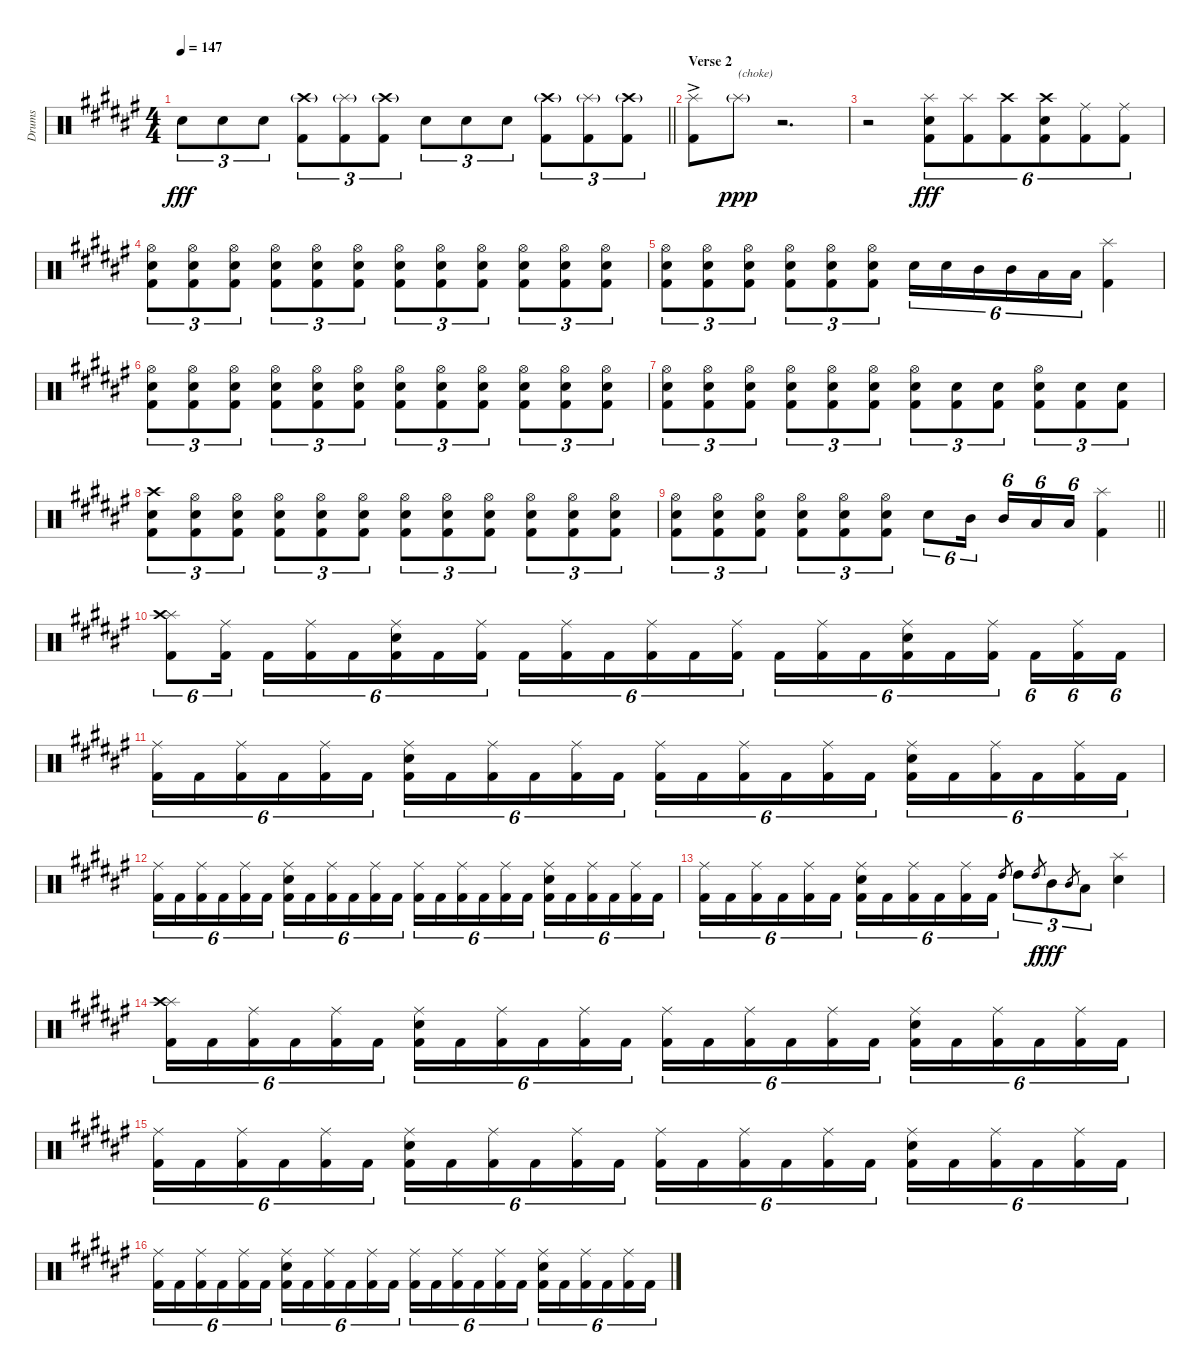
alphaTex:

\track ("Drums" "Drums") {instrument percussion}
\staff {score}
\articulation defaults
\ts (4 4)
\tempo 147
\clef neutral
\barLineRight lightlight
\ks d#minor "Snare (hit) 2".8{tu (3 2) dy fff} "Snare (hit) 2".8{tu (3 2)} "Snare (hit) 2".8{tu (3 2)}
("Crash high (hit)"{g} "Kick (hit) 2").8{tu (3 2)} ("Splash (hit)"{g} "Kick (hit) 2").8{tu (3 2)} ("Crash high (hit)"{g} "Kick (hit) 2").8{tu (3 2)} "Snare (hit) 2".8{tu (3 2)} "Snare (hit) 2".8{tu (3 2)} "Snare (hit) 2".8{tu (3 2)} ("Crash high (hit)"{g} "Kick (hit) 2").8{tu (3 2)} ("Splash (hit)"{g} "Kick (hit) 2").8{tu (3 2)} ("Crash high (hit)"{g} "Kick (hit) 2").8{tu (3 2)} |
\section ("" "Verse 2")
("Splash (hit)"{ac} "Kick (hit) 2").8 "Splash (hit)"{g}.8{txt "(choke)" dy ppp} r.2{d} |
r.2 ("Splash (hit)" "Snare (hit) 2" "Kick (hit) 2").8{tu (6 4) dy fff} ("Splash (hit)" "Kick (hit) 2").8{tu (6 4)} ("Crash high (hit)" "Kick (hit) 2").8{tu (6 4)} ("Crash high (hit)" "Snare (hit) 2" "Kick (hit) 2").8{tu (6 4)} ("Ride (middle)" "Kick (hit) 2").8{tu (6 4)} ("Ride (middle)" "Kick (hit) 2").8{tu (6 4)} |
("Hi-Hat (open)" "Snare (hit) 2" "Kick (hit) 2").8{tu (3 2)} ("Hi-Hat (open)" "Snare (hit) 2" "Kick (hit) 2").8{tu (3 2)} ("Hi-Hat (open)" "Snare (hit) 2" "Kick (hit) 2").8{tu (3 2)} ("Hi-Hat (open)" "Snare (hit) 2" "Kick (hit) 2").8{tu (3 2)} ("Hi-Hat (open)" "Snare (hit) 2" "Kick (hit) 2").8{tu (3 2)} ("Hi-Hat (open)" "Snare (hit) 2" "Kick (hit) 2").8{tu (3 2)} ("Hi-Hat (open)" "Snare (hit) 2" "Kick (hit) 2").8{tu (3 2)} ("Hi-Hat (open)" "Snare (hit) 2" "Kick (hit) 2").8{tu (3 2)} ("Hi-Hat (open)" "Snare (hit) 2" "Kick (hit) 2").8{tu (3 2)} ("Hi-Hat (open)" "Snare (hit) 2" "Kick (hit) 2").8{tu (3 2)} ("Hi-Hat (open)" "Snare (hit) 2" "Kick (hit) 2").8{tu (3 2)} ("Hi-Hat (open)" "Snare (hit) 2" "Kick (hit) 2").8{tu (3 2)} |
("Hi-Hat (open)" "Snare (hit) 2" "Kick (hit) 2").8{tu (3 2)} ("Hi-Hat (open)" "Snare (hit) 2" "Kick (hit) 2").8{tu (3 2)} ("Hi-Hat (open)" "Snare (hit) 2" "Kick (hit) 2").8{tu (3 2)} ("Hi-Hat (open)" "Snare (hit) 2" "Kick (hit) 2").8{tu (3 2)} ("Hi-Hat (open)" "Snare (hit) 2" "Kick (hit) 2").8{tu (3 2)} ("Hi-Hat (open)" "Snare (hit) 2" "Kick (hit) 2").8{tu (3 2)} "Snare (hit) 2".16{tu (6 4)} "Snare (hit) 2".16{tu (6 4)} "Mid Tom (hit)".16{tu (6 4)} "Mid Tom (hit)".16{tu (6 4)} "Low Tom (hit)".16{tu (6 4)} "Low Tom (hit)".16{tu (6 4)} ("Splash (hit)" "Kick (hit) 2").4 |
("Hi-Hat (open)" "Snare (hit) 2" "Kick (hit) 2").8{tu (3 2)} ("Hi-Hat (open)" "Snare (hit) 2" "Kick (hit) 2").8{tu (3 2)} ("Hi-Hat (open)" "Snare (hit) 2" "Kick (hit) 2").8{tu (3 2)} ("Hi-Hat (open)" "Snare (hit) 2" "Kick (hit) 2").8{tu (3 2)} ("Hi-Hat (open)" "Snare (hit) 2" "Kick (hit) 2").8{tu (3 2)} ("Hi-Hat (open)" "Snare (hit) 2" "Kick (hit) 2").8{tu (3 2)} ("Hi-Hat (open)" "Snare (hit) 2" "Kick (hit) 2").8{tu (3 2)} ("Hi-Hat (open)" "Snare (hit) 2" "Kick (hit) 2").8{tu (3 2)} ("Hi-Hat (open)" "Snare (hit) 2" "Kick (hit) 2").8{tu (3 2)} ("Hi-Hat (open)" "Snare (hit) 2" "Kick (hit) 2").8{tu (3 2)} ("Hi-Hat (open)" "Snare (hit) 2" "Kick (hit) 2").8{tu (3 2)} ("Hi-Hat (open)" "Snare (hit) 2" "Kick (hit) 2").8{tu (3 2)} |
("Hi-Hat (open)" "Snare (hit) 2" "Kick (hit) 2").8{tu (3 2)} ("Hi-Hat (open)" "Snare (hit) 2" "Kick (hit) 2").8{tu (3 2)} ("Hi-Hat (open)" "Snare (hit) 2" "Kick (hit) 2").8{tu (3 2)} ("Hi-Hat (open)" "Snare (hit) 2" "Kick (hit) 2").8{tu (3 2)} ("Hi-Hat (open)" "Snare (hit) 2" "Kick (hit) 2").8{tu (3 2)} ("Hi-Hat (open)" "Snare (hit) 2" "Kick (hit) 2").8{tu (3 2)} ("Hi-Hat (open)" "Snare (hit) 2" "Kick (hit) 2").8{tu (3 2)} ("Snare (hit) 2" "Kick (hit) 2").8{tu (3 2)} ("Snare (hit) 2" "Kick (hit) 2").8{tu (3 2)} ("Hi-Hat (open)" "Snare (hit) 2" "Kick (hit) 2").8{tu (3 2)} ("Snare (hit) 2" "Kick (hit) 2").8{tu (3 2)} ("Snare (hit) 2" "Kick (hit) 2").8{tu (3 2)} |
("Crash high (hit)" "Snare (hit) 2" "Kick (hit) 2").8{tu (3 2)} ("Hi-Hat (open)" "Snare (hit) 2" "Kick (hit) 2").8{tu (3 2)} ("Hi-Hat (open)" "Snare (hit) 2" "Kick (hit) 2").8{tu (3 2)} ("Hi-Hat (open)" "Snare (hit) 2" "Kick (hit) 2").8{tu (3 2)} ("Hi-Hat (open)" "Snare (hit) 2" "Kick (hit) 2").8{tu (3 2)} ("Hi-Hat (open)" "Snare (hit) 2" "Kick (hit) 2").8{tu (3 2)} ("Hi-Hat (open)" "Snare (hit) 2" "Kick (hit) 2").8{tu (3 2)} ("Hi-Hat (open)" "Snare (hit) 2" "Kick (hit) 2").8{tu (3 2)} ("Hi-Hat (open)" "Snare (hit) 2" "Kick (hit) 2").8{tu (3 2)} ("Hi-Hat (open)" "Snare (hit) 2" "Kick (hit) 2").8{tu (3 2)} ("Hi-Hat (open)" "Snare (hit) 2" "Kick (hit) 2").8{tu (3 2)} ("Hi-Hat (open)" "Snare (hit) 2" "Kick (hit) 2").8{tu (3 2)} |
\barLineRight lightlight
("Hi-Hat (open)" "Snare (hit) 2" "Kick (hit) 2").8{tu (3 2)} ("Hi-Hat (open)" "Snare (hit) 2" "Kick (hit) 2").8{tu (3 2)} ("Hi-Hat (open)" "Snare (hit) 2" "Kick (hit) 2").8{tu (3 2)} ("Hi-Hat (open)" "Snare (hit) 2" "Kick (hit) 2").8{tu (3 2)} ("Hi-Hat (open)" "Snare (hit) 2" "Kick (hit) 2").8{tu (3 2)} ("Hi-Hat (open)" "Snare (hit) 2" "Kick (hit) 2").8{tu (3 2)} "Snare (hit) 2".8{tu (6 4)} "Mid Tom (hit)".16{tu (6 4)} "Mid Tom (hit)".16{tu (6 4)} "Low Tom (hit)".16{tu (6 4)} "Low Tom (hit)".16{tu (6 4)} ("Splash (hit)" "Kick (hit) 2").4 |
\section ("" "")
("Splash (hit)" "Crash high (hit)" "Kick (hit) 2").8{tu (6 4)} ("Ride (middle)" "Kick (hit) 2").16{tu (6 4)} "Kick (hit) 2".16{tu (6 4)} ("Ride (middle)" "Kick (hit) 2").16{tu (6 4)} "Kick (hit) 2".16{tu (6 4)} ("Ride (middle)" "Snare (hit) 2" "Kick (hit) 2").16{tu (6 4)} "Kick (hit) 2".16{tu (6 4)} ("Ride (middle)" "Kick (hit) 2").16{tu (6 4)} "Kick (hit) 2".16{tu (6 4)} ("Ride (middle)" "Kick (hit) 2").16{tu (6 4)} "Kick (hit) 2".16{tu (6 4)} ("Ride (middle)" "Kick (hit) 2").16{tu (6 4)} "Kick (hit) 2".16{tu (6 4)} ("Ride (middle)" "Kick (hit) 2").16{tu (6 4)} "Kick (hit) 2".16{tu (6 4)} ("Ride (middle)" "Kick (hit) 2").16{tu (6 4)} "Kick (hit) 2".16{tu (6 4)} ("Ride (middle)" "Snare (hit) 2" "Kick (hit) 2").16{tu (6 4)} "Kick (hit) 2".16{tu (6 4)} ("Ride (middle)" "Kick (hit) 2").16{tu (6 4)} "Kick (hit) 2".16{tu (6 4)} ("Ride (middle)" "Kick (hit) 2").16{tu (6 4)} "Kick (hit) 2".16{tu (6 4)} |
("Ride (middle)" "Kick (hit) 2").16{tu (6 4)} "Kick (hit) 2".16{tu (6 4)} ("Ride (middle)" "Kick (hit) 2").16{tu (6 4)} "Kick (hit) 2".16{tu (6 4)} ("Ride (middle)" "Kick (hit) 2").16{tu (6 4)} "Kick (hit) 2".16{tu (6 4)} ("Ride (middle)" "Snare (hit) 2" "Kick (hit) 2").16{tu (6 4)} "Kick (hit) 2".16{tu (6 4)} ("Ride (middle)" "Kick (hit) 2").16{tu (6 4)} "Kick (hit) 2".16{tu (6 4)} ("Ride (middle)" "Kick (hit) 2").16{tu (6 4)} "Kick (hit) 2".16{tu (6 4)} ("Ride (middle)" "Kick (hit) 2").16{tu (6 4)} "Kick (hit) 2".16{tu (6 4)} ("Ride (middle)" "Kick (hit) 2").16{tu (6 4)} "Kick (hit) 2".16{tu (6 4)} ("Ride (middle)" "Kick (hit) 2").16{tu (6 4)} "Kick (hit) 2".16{tu (6 4)} ("Ride (middle)" "Snare (hit) 2" "Kick (hit) 2").16{tu (6 4)} "Kick (hit) 2".16{tu (6 4)} ("Ride (middle)" "Kick (hit) 2").16{tu (6 4)} "Kick (hit) 2".16{tu (6 4)} ("Ride (middle)" "Kick (hit) 2").16{tu (6 4)} "Kick (hit) 2".16{tu (6 4)} |
("Ride (middle)" "Kick (hit) 2").16{tu (6 4)} "Kick (hit) 2".16{tu (6 4)} ("Ride (middle)" "Kick (hit) 2").16{tu (6 4)} "Kick (hit) 2".16{tu (6 4)} ("Ride (middle)" "Kick (hit) 2").16{tu (6 4)} "Kick (hit) 2".16{tu (6 4)} ("Ride (middle)" "Snare (hit) 2" "Kick (hit) 2").16{tu (6 4)} "Kick (hit) 2".16{tu (6 4)} ("Ride (middle)" "Kick (hit) 2").16{tu (6 4)} "Kick (hit) 2".16{tu (6 4)} ("Ride (middle)" "Kick (hit) 2").16{tu (6 4)} "Kick (hit) 2".16{tu (6 4)} ("Ride (middle)" "Kick (hit) 2").16{tu (6 4)} "Kick (hit) 2".16{tu (6 4)} ("Ride (middle)" "Kick (hit) 2").16{tu (6 4)} "Kick (hit) 2".16{tu (6 4)} ("Ride (middle)" "Kick (hit) 2").16{tu (6 4)} "Kick (hit) 2".16{tu (6 4)} ("Ride (middle)" "Snare (hit) 2" "Kick (hit) 2").16{tu (6 4)} "Kick (hit) 2".16{tu (6 4)} ("Ride (middle)" "Kick (hit) 2").16{tu (6 4)} "Kick (hit) 2".16{tu (6 4)} ("Ride (middle)" "Kick (hit) 2").16{tu (6 4)} "Kick (hit) 2".16{tu (6 4)} |
("Ride (middle)" "Kick (hit) 2").16{tu (6 4)} "Kick (hit) 2".16{tu (6 4)} ("Ride (middle)" "Kick (hit) 2").16{tu (6 4)} "Kick (hit) 2".16{tu (6 4)} ("Ride (middle)" "Kick (hit) 2").16{tu (6 4)} "Kick (hit) 2".16{tu (6 4)} ("Ride (middle)" "Snare (hit) 2" "Kick (hit) 2").16{tu (6 4)} "Kick (hit) 2".16{tu (6 4)} ("Ride (middle)" "Kick (hit) 2").16{tu (6 4)} "Kick (hit) 2".16{tu (6 4)} ("Ride (middle)" "Kick (hit) 2").16{tu (6 4)} "Kick (hit) 2".16{tu (6 4)} "High Tom (hit)".8{gr} "High Tom (hit)".8{tu (3 2)} "High Tom (hit)".8{gr dy f} "Mid Tom (hit)".8{tu (3 2) dy fff} "Mid Tom (hit)".8{gr} "Low Tom (hit)".8{tu (3 2)} ("Splash (hit)" "Snare (hit) 2").4 |
("Splash (hit)" "Crash high (hit)" "Kick (hit) 2").16{tu (6 4)} "Kick (hit) 2".16{tu (6 4)} ("Ride (middle)" "Kick (hit) 2").16{tu (6 4)} "Kick (hit) 2".16{tu (6 4)} ("Ride (middle)" "Kick (hit) 2").16{tu (6 4)} "Kick (hit) 2".16{tu (6 4)} ("Ride (middle)" "Snare (hit) 2" "Kick (hit) 2").16{tu (6 4)} "Kick (hit) 2".16{tu (6 4)} ("Ride (middle)" "Kick (hit) 2").16{tu (6 4)} "Kick (hit) 2".16{tu (6 4)} ("Ride (middle)" "Kick (hit) 2").16{tu (6 4)} "Kick (hit) 2".16{tu (6 4)} ("Ride (middle)" "Kick (hit) 2").16{tu (6 4)} "Kick (hit) 2".16{tu (6 4)} ("Ride (middle)" "Kick (hit) 2").16{tu (6 4)} "Kick (hit) 2".16{tu (6 4)} ("Ride (middle)" "Kick (hit) 2").16{tu (6 4)} "Kick (hit) 2".16{tu (6 4)} ("Ride (middle)" "Snare (hit) 2" "Kick (hit) 2").16{tu (6 4)} "Kick (hit) 2".16{tu (6 4)} ("Ride (middle)" "Kick (hit) 2").16{tu (6 4)} "Kick (hit) 2".16{tu (6 4)} ("Ride (middle)" "Kick (hit) 2").16{tu (6 4)} "Kick (hit) 2".16{tu (6 4)} |
("Ride (middle)" "Kick (hit) 2").16{tu (6 4)} "Kick (hit) 2".16{tu (6 4)} ("Ride (middle)" "Kick (hit) 2").16{tu (6 4)} "Kick (hit) 2".16{tu (6 4)} ("Ride (middle)" "Kick (hit) 2").16{tu (6 4)} "Kick (hit) 2".16{tu (6 4)} ("Ride (middle)" "Snare (hit) 2" "Kick (hit) 2").16{tu (6 4)} "Kick (hit) 2".16{tu (6 4)} ("Ride (middle)" "Kick (hit) 2").16{tu (6 4)} "Kick (hit) 2".16{tu (6 4)} ("Ride (middle)" "Kick (hit) 2").16{tu (6 4)} "Kick (hit) 2".16{tu (6 4)} ("Ride (middle)" "Kick (hit) 2").16{tu (6 4)} "Kick (hit) 2".16{tu (6 4)} ("Ride (middle)" "Kick (hit) 2").16{tu (6 4)} "Kick (hit) 2".16{tu (6 4)} ("Ride (middle)" "Kick (hit) 2").16{tu (6 4)} "Kick (hit) 2".16{tu (6 4)} ("Ride (middle)" "Snare (hit) 2" "Kick (hit) 2").16{tu (6 4)} "Kick (hit) 2".16{tu (6 4)} ("Ride (middle)" "Kick (hit) 2").16{tu (6 4)} "Kick (hit) 2".16{tu (6 4)} ("Ride (middle)" "Kick (hit) 2").16{tu (6 4)} "Kick (hit) 2".16{tu (6 4)} |
("Ride (middle)" "Kick (hit) 2").16{tu (6 4)} "Kick (hit) 2".16{tu (6 4)} ("Ride (middle)" "Kick (hit) 2").16{tu (6 4)} "Kick (hit) 2".16{tu (6 4)} ("Ride (middle)" "Kick (hit) 2").16{tu (6 4)} "Kick (hit) 2".16{tu (6 4)} ("Ride (middle)" "Snare (hit) 2" "Kick (hit) 2").16{tu (6 4)} "Kick (hit) 2".16{tu (6 4)} ("Ride (middle)" "Kick (hit) 2").16{tu (6 4)} "Kick (hit) 2".16{tu (6 4)} ("Ride (middle)" "Kick (hit) 2").16{tu (6 4)} "Kick (hit) 2".16{tu (6 4)} ("Ride (middle)" "Kick (hit) 2").16{tu (6 4)} "Kick (hit) 2".16{tu (6 4)} ("Ride (middle)" "Kick (hit) 2").16{tu (6 4)} "Kick (hit) 2".16{tu (6 4)} ("Ride (middle)" "Kick (hit) 2").16{tu (6 4)} "Kick (hit) 2".16{tu (6 4)} ("Ride (middle)" "Snare (hit) 2" "Kick (hit) 2").16{tu (6 4)} "Kick (hit) 2".16{tu (6 4)} ("Ride (middle)" "Kick (hit) 2").16{tu (6 4)} "Kick (hit) 2".16{tu (6 4)} ("Ride (middle)" "Kick (hit) 2").16{tu (6 4)} "Kick (hit) 2".16{tu (6 4)}
